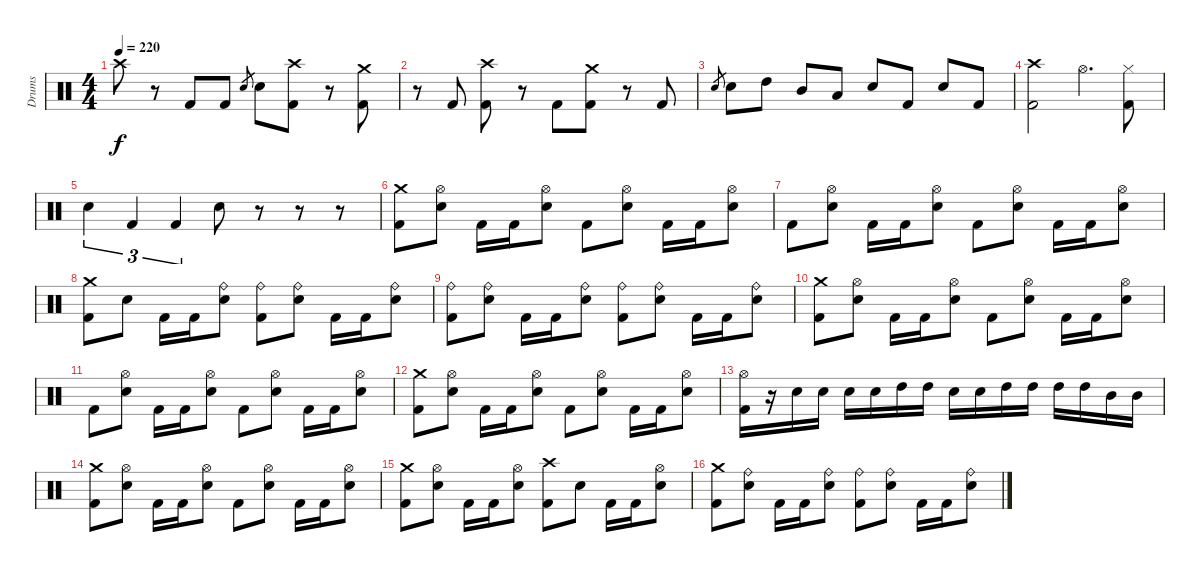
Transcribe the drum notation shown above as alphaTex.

\track ("Drums" "Drums") {instrument percussion}
\staff {score}
\articulation defaults
\ts (4 4)
\tempo 220
\clef neutral
\ks c "Crash high (hit)".8{dy f}
r.8 "Kick (hit) 2".8 "Kick (hit) 2".8 "Electric Snare (hit)".8{gr} "Electric Snare (hit)".8 ("Crash high (hit)" "Kick (hit) 2").8 r.8 ("Crash medium (hit)" "Kick (hit) 2").8 |
r.8 "Kick (hit) 2".8 ("Crash high (hit)" "Kick (hit) 2").8 r.8 "Kick (hit) 2".8 ("Crash medium (hit)" "Kick (hit) 2").8 r.8 "Kick (hit) 2".8 |
"Electric Snare (hit)".8{gr} "Electric Snare (hit)".8 "High Tom (hit)".8 "Mid Tom (hit)".8 "Low Floor Tom (hit)".8 "Electric Snare (hit)".8 "Kick (hit) 2".8 "Electric Snare (hit)".8 "Kick (hit) 2".8 |
("Crash high (hit)" "Kick (hit) 2").2 "Hi-Hat (open)".4{d} ("Hi-Hat (closed)" "Kick (hit) 2").8 |
"Electric Snare (hit)".4{tu (3 2)} "Kick (hit) 2".4{tu (3 2)} "Kick (hit) 2".4{tu (3 2)} "Electric Snare (hit)".8 r.8 r.8 r.8 |
("Crash medium (hit)" "Kick (hit) 2").8 ("Hi-Hat (open)" "Electric Snare (hit)").8 "Kick (hit) 2".16 "Kick (hit) 2".16 ("Hi-Hat (open)" "Electric Snare (hit)").8 "Kick (hit) 2".8 ("Hi-Hat (open)" "Electric Snare (hit)").8 "Kick (hit) 2".16 "Kick (hit) 2".16 ("Hi-Hat (open)" "Electric Snare (hit)").8 |
"Kick (hit) 2".8 ("Hi-Hat (open)" "Electric Snare (hit)").8 "Kick (hit) 2".16 "Kick (hit) 2".16 ("Hi-Hat (open)" "Electric Snare (hit)").8 "Kick (hit) 2".8 ("Hi-Hat (open)" "Electric Snare (hit)").8 "Kick (hit) 2".16 "Kick (hit) 2".16 ("Hi-Hat (open)" "Electric Snare (hit)").8 |
("Crash medium (hit)" "Kick (hit) 2").8 "Electric Snare (hit)".8 "Kick (hit) 2".16 "Kick (hit) 2".16 ("Ride (bell)" "Electric Snare (hit)").8 ("Ride (bell)" "Kick (hit) 2").8 ("Ride (bell)" "Electric Snare (hit)").8 "Kick (hit) 2".16 "Kick (hit) 2".16 ("Ride (bell)" "Electric Snare (hit)").8 |
("Ride (bell)" "Kick (hit) 2").8 ("Ride (bell)" "Electric Snare (hit)").8 "Kick (hit) 2".16 "Kick (hit) 2".16 ("Ride (bell)" "Electric Snare (hit)").8 ("Ride (bell)" "Kick (hit) 2").8 ("Ride (bell)" "Electric Snare (hit)").8 "Kick (hit) 2".16 "Kick (hit) 2".16 ("Ride (bell)" "Electric Snare (hit)").8 |
("Crash medium (hit)" "Kick (hit) 2").8 ("Hi-Hat (open)" "Electric Snare (hit)").8 "Kick (hit) 2".16 "Kick (hit) 2".16 ("Hi-Hat (open)" "Electric Snare (hit)").8 "Kick (hit) 2".8 ("Hi-Hat (open)" "Electric Snare (hit)").8 "Kick (hit) 2".16 "Kick (hit) 2".16 ("Hi-Hat (open)" "Electric Snare (hit)").8 |
"Kick (hit) 2".8 ("Hi-Hat (open)" "Electric Snare (hit)").8 "Kick (hit) 2".16 "Kick (hit) 2".16 ("Hi-Hat (open)" "Electric Snare (hit)").8 "Kick (hit) 2".8 ("Hi-Hat (open)" "Electric Snare (hit)").8 "Kick (hit) 2".16 "Kick (hit) 2".16 ("Hi-Hat (open)" "Electric Snare (hit)").8 |
("Crash medium (hit)" "Kick (hit) 2").8 ("Hi-Hat (open)" "Electric Snare (hit)").8 "Kick (hit) 2".16 "Kick (hit) 2".16 ("Hi-Hat (open)" "Electric Snare (hit)").8 "Kick (hit) 2".8 ("Hi-Hat (open)" "Electric Snare (hit)").8 "Kick (hit) 2".16 "Kick (hit) 2".16 ("Hi-Hat (open)" "Electric Snare (hit)").8 |
("Hi-Hat (open)" "Kick (hit) 2").16 r.16 "Electric Snare (hit)".16 "Electric Snare (hit)".16 "Electric Snare (hit)".16 "Electric Snare (hit)".16 "High Tom (hit)".16 "High Tom (hit)".16 "Electric Snare (hit)".16 "Electric Snare (hit)".16 "High Tom (hit)".16 "High Tom (hit)".16 "High Tom (hit)".16 "High Tom (hit)".16 "Mid Tom (hit)".16 "Mid Tom (hit)".16 |
("Crash medium (hit)" "Kick (hit) 2").8 ("Hi-Hat (open)" "Electric Snare (hit)").8 "Kick (hit) 2".16 "Kick (hit) 2".16 ("Hi-Hat (open)" "Electric Snare (hit)").8 "Kick (hit) 2".8 ("Hi-Hat (open)" "Electric Snare (hit)").8 "Kick (hit) 2".16 "Kick (hit) 2".16 ("Hi-Hat (open)" "Electric Snare (hit)").8 |
("Crash medium (hit)" "Kick (hit) 2").8 ("Hi-Hat (open)" "Electric Snare (hit)").8 "Kick (hit) 2".16 "Kick (hit) 2".16 ("Hi-Hat (open)" "Electric Snare (hit)").8 ("Crash high (hit)" "Kick (hit) 2").8 "Electric Snare (hit)".8 "Kick (hit) 2".16 "Kick (hit) 2".16 ("Hi-Hat (open)" "Electric Snare (hit)").8 |
("Crash medium (hit)" "Kick (hit) 2").8 ("Ride (bell)" "Electric Snare (hit)").8 "Kick (hit) 2".16 "Kick (hit) 2".16 ("Ride (bell)" "Electric Snare (hit)").8 ("Ride (bell)" "Kick (hit) 2").8 ("Ride (bell)" "Electric Snare (hit)").8 "Kick (hit) 2".16 "Kick (hit) 2".16 ("Ride (bell)" "Electric Snare (hit)").8
